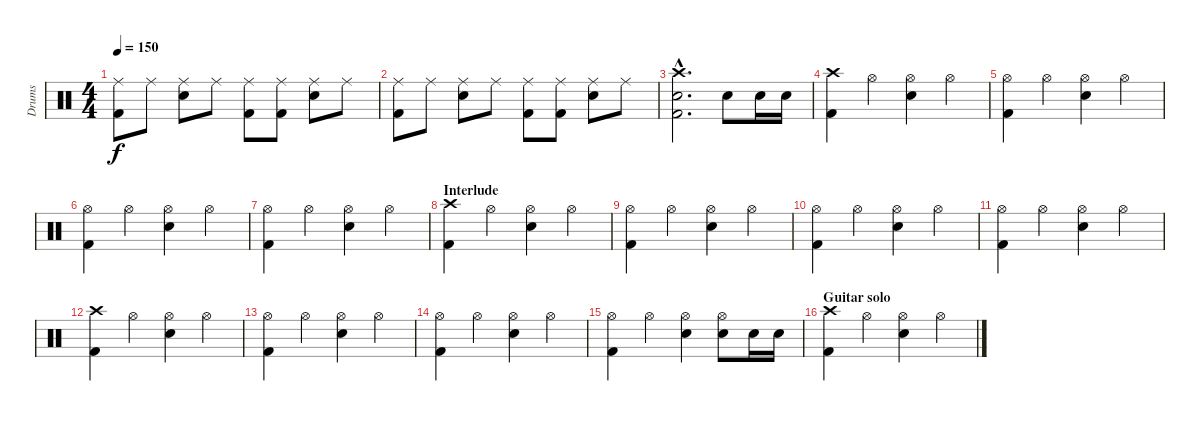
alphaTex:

\track ("Drums" "Drums") {instrument percussion}
\staff {score}
\articulation defaults
\ts (4 4)
\tempo 150
\clef neutral
\ks c
("Ride (middle)" "Kick (hit) 2").8{dy f} "Ride (middle)".8 ("Ride (middle)" "Electric Snare (hit)").8 "Ride (middle)".8 ("Ride (middle)" "Kick (hit) 2").8 ("Ride (middle)" "Kick (hit) 2").8 ("Ride (middle)" "Electric Snare (hit)").8 "Ride (middle)".8 |
("Ride (middle)" "Kick (hit) 2").8 "Ride (middle)".8 ("Ride (middle)" "Electric Snare (hit)").8 "Ride (middle)".8 ("Ride (middle)" "Kick (hit) 2").8 ("Ride (middle)" "Kick (hit) 2").8 ("Ride (middle)" "Electric Snare (hit)").8 "Ride (middle)".8 |
("Crash high (hit)"{hac} "Kick (hit) 2"{hac} "Electric Snare (hit)"{hac}).2{d} "Electric Snare (hit)".8 "Electric Snare (hit)".16 "Electric Snare (hit)".16 |
("Crash high (hit)" "Kick (hit) 2").4 "Hi-Hat (open)".4 ("Hi-Hat (open)" "Electric Snare (hit)").4 "Hi-Hat (open)".4 |
("Hi-Hat (open)" "Kick (hit) 2").4 "Hi-Hat (open)".4 ("Hi-Hat (open)" "Electric Snare (hit)").4 "Hi-Hat (open)".4 |
("Hi-Hat (open)" "Kick (hit) 2").4 "Hi-Hat (open)".4 ("Hi-Hat (open)" "Electric Snare (hit)").4 "Hi-Hat (open)".4 |
("Hi-Hat (open)" "Kick (hit) 2").4 "Hi-Hat (open)".4 ("Hi-Hat (open)" "Electric Snare (hit)").4 "Hi-Hat (open)".4 |
\section ("" "Interlude")
("Crash high (hit)" "Kick (hit) 2").4 "Hi-Hat (open)".4 ("Hi-Hat (open)" "Electric Snare (hit)").4 "Hi-Hat (open)".4 |
("Hi-Hat (open)" "Kick (hit) 2").4 "Hi-Hat (open)".4 ("Hi-Hat (open)" "Electric Snare (hit)").4 "Hi-Hat (open)".4 |
("Hi-Hat (open)" "Kick (hit) 2").4 "Hi-Hat (open)".4 ("Hi-Hat (open)" "Electric Snare (hit)").4 "Hi-Hat (open)".4 |
("Hi-Hat (open)" "Kick (hit) 2").4 "Hi-Hat (open)".4 ("Hi-Hat (open)" "Electric Snare (hit)").4 "Hi-Hat (open)".4 |
("Crash high (hit)" "Kick (hit) 2").4 "Hi-Hat (open)".4 ("Hi-Hat (open)" "Electric Snare (hit)").4 "Hi-Hat (open)".4 |
("Hi-Hat (open)" "Kick (hit) 2").4 "Hi-Hat (open)".4 ("Hi-Hat (open)" "Electric Snare (hit)").4 "Hi-Hat (open)".4 |
("Hi-Hat (open)" "Kick (hit) 2").4 "Hi-Hat (open)".4 ("Hi-Hat (open)" "Electric Snare (hit)").4 "Hi-Hat (open)".4 |
("Hi-Hat (open)" "Kick (hit) 2").4 "Hi-Hat (open)".4 ("Hi-Hat (open)" "Electric Snare (hit)").4 ("Hi-Hat (open)" "Electric Snare (hit)").8 "Electric Snare (hit)".16 "Electric Snare (hit)".16 |
\section ("" "Guitar solo")
("Crash high (hit)" "Kick (hit) 2").4 "Hi-Hat (open)".4 ("Hi-Hat (open)" "Electric Snare (hit)").4 "Hi-Hat (open)".4
